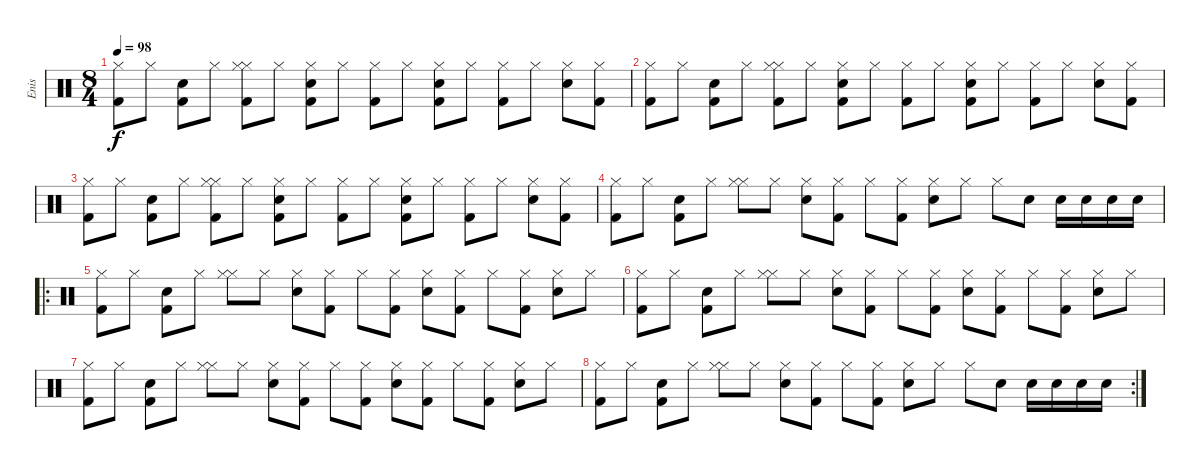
\track ("Enis" "Enis") {instrument percussion}
\staff {score}
\articulation defaults
\ts (8 4)
\tempo 98
\clef neutral
\ks c
("Kick (hit) 2" "Hi-Hat (closed)").8{dy f} "Hi-Hat (closed)".8 ("Kick (hit) 2" "Snare (hit) 2").8 "Hi-Hat (closed)".8 ("Hi-Hat (closed)" "Hi-Hat (closed)" "Kick (hit) 2").8 "Hi-Hat (closed)".8 ("Hi-Hat (closed)" "Snare (hit) 2" "Kick (hit) 2").8 "Hi-Hat (closed)".8 ("Hi-Hat (closed)" "Kick (hit) 2").8 "Hi-Hat (closed)".8 ("Hi-Hat (closed)" "Snare (hit) 2" "Kick (hit) 2").8 "Hi-Hat (closed)".8 ("Hi-Hat (closed)" "Kick (hit) 2").8 "Hi-Hat (closed)".8 ("Hi-Hat (closed)" "Snare (hit) 2").8 ("Hi-Hat (closed)" "Kick (hit) 2").8 |
("Kick (hit) 2" "Hi-Hat (closed)").8 "Hi-Hat (closed)".8 ("Kick (hit) 2" "Snare (hit) 2").8 "Hi-Hat (closed)".8 ("Hi-Hat (closed)" "Hi-Hat (closed)" "Kick (hit) 2").8 "Hi-Hat (closed)".8 ("Hi-Hat (closed)" "Snare (hit) 2" "Kick (hit) 2").8 "Hi-Hat (closed)".8 ("Hi-Hat (closed)" "Kick (hit) 2").8 "Hi-Hat (closed)".8 ("Hi-Hat (closed)" "Snare (hit) 2" "Kick (hit) 2").8 "Hi-Hat (closed)".8 ("Hi-Hat (closed)" "Kick (hit) 2").8 "Hi-Hat (closed)".8 ("Hi-Hat (closed)" "Snare (hit) 2").8 ("Hi-Hat (closed)" "Kick (hit) 2").8 |
("Kick (hit) 2" "Hi-Hat (closed)").8 "Hi-Hat (closed)".8 ("Kick (hit) 2" "Snare (hit) 2").8 "Hi-Hat (closed)".8 ("Hi-Hat (closed)" "Hi-Hat (closed)" "Kick (hit) 2").8 "Hi-Hat (closed)".8 ("Hi-Hat (closed)" "Snare (hit) 2" "Kick (hit) 2").8 "Hi-Hat (closed)".8 ("Hi-Hat (closed)" "Kick (hit) 2").8 "Hi-Hat (closed)".8 ("Hi-Hat (closed)" "Snare (hit) 2" "Kick (hit) 2").8 "Hi-Hat (closed)".8 ("Hi-Hat (closed)" "Kick (hit) 2").8 "Hi-Hat (closed)".8 ("Hi-Hat (closed)" "Snare (hit) 2").8 ("Hi-Hat (closed)" "Kick (hit) 2").8 |
("Kick (hit) 2" "Hi-Hat (closed)").8 "Hi-Hat (closed)".8 ("Kick (hit) 2" "Snare (hit) 2").8 "Hi-Hat (closed)".8 ("Hi-Hat (closed)" "Hi-Hat (closed)").8 "Hi-Hat (closed)".8 ("Hi-Hat (closed)" "Snare (hit) 2").8 ("Hi-Hat (closed)" "Kick (hit) 2").8 "Hi-Hat (closed)".8 ("Hi-Hat (closed)" "Kick (hit) 2").8 ("Hi-Hat (closed)" "Snare (hit) 2").8 "Hi-Hat (closed)".8 "Hi-Hat (closed)".8 "Snare (hit) 2".8 "Snare (hit) 2".16 "Snare (hit) 2".16 "Snare (hit) 2".16 "Snare (hit) 2".16 |
\ro
("Kick (hit) 2" "Hi-Hat (closed)").8 "Hi-Hat (closed)".8 ("Kick (hit) 2" "Snare (hit) 2").8 "Hi-Hat (closed)".8 ("Hi-Hat (closed)" "Hi-Hat (closed)").8 "Hi-Hat (closed)".8 ("Hi-Hat (closed)" "Snare (hit) 2").8 ("Hi-Hat (closed)" "Kick (hit) 2").8 "Hi-Hat (closed)".8 ("Hi-Hat (closed)" "Kick (hit) 2").8 ("Hi-Hat (closed)" "Snare (hit) 2").8 ("Hi-Hat (closed)" "Kick (hit) 2").8 "Hi-Hat (closed)".8 ("Hi-Hat (closed)" "Kick (hit) 2").8 ("Hi-Hat (closed)" "Snare (hit) 2").8 "Hi-Hat (closed)".8 |
("Kick (hit) 2" "Hi-Hat (closed)").8 "Hi-Hat (closed)".8 ("Kick (hit) 2" "Snare (hit) 2").8 "Hi-Hat (closed)".8 ("Hi-Hat (closed)" "Hi-Hat (closed)").8 "Hi-Hat (closed)".8 ("Hi-Hat (closed)" "Snare (hit) 2").8 ("Hi-Hat (closed)" "Kick (hit) 2").8 "Hi-Hat (closed)".8 ("Hi-Hat (closed)" "Kick (hit) 2").8 ("Hi-Hat (closed)" "Snare (hit) 2").8 ("Hi-Hat (closed)" "Kick (hit) 2").8 "Hi-Hat (closed)".8 ("Hi-Hat (closed)" "Kick (hit) 2").8 ("Hi-Hat (closed)" "Snare (hit) 2").8 "Hi-Hat (closed)".8 |
("Kick (hit) 2" "Hi-Hat (closed)").8 "Hi-Hat (closed)".8 ("Kick (hit) 2" "Snare (hit) 2").8 "Hi-Hat (closed)".8 ("Hi-Hat (closed)" "Hi-Hat (closed)").8 "Hi-Hat (closed)".8 ("Hi-Hat (closed)" "Snare (hit) 2").8 ("Hi-Hat (closed)" "Kick (hit) 2").8 "Hi-Hat (closed)".8 ("Hi-Hat (closed)" "Kick (hit) 2").8 ("Hi-Hat (closed)" "Snare (hit) 2").8 ("Hi-Hat (closed)" "Kick (hit) 2").8 "Hi-Hat (closed)".8 ("Hi-Hat (closed)" "Kick (hit) 2").8 ("Hi-Hat (closed)" "Snare (hit) 2").8 "Hi-Hat (closed)".8 |
\rc 2
("Kick (hit) 2" "Hi-Hat (closed)").8 "Hi-Hat (closed)".8 ("Kick (hit) 2" "Snare (hit) 2").8 "Hi-Hat (closed)".8 ("Hi-Hat (closed)" "Hi-Hat (closed)").8 "Hi-Hat (closed)".8 ("Hi-Hat (closed)" "Snare (hit) 2").8 ("Hi-Hat (closed)" "Kick (hit) 2").8 "Hi-Hat (closed)".8 ("Hi-Hat (closed)" "Kick (hit) 2").8 ("Hi-Hat (closed)" "Snare (hit) 2").8 "Hi-Hat (closed)".8 "Hi-Hat (closed)".8 "Snare (hit) 2".8 "Snare (hit) 2".16 "Snare (hit) 2".16 "Snare (hit) 2".16 "Snare (hit) 2".16
